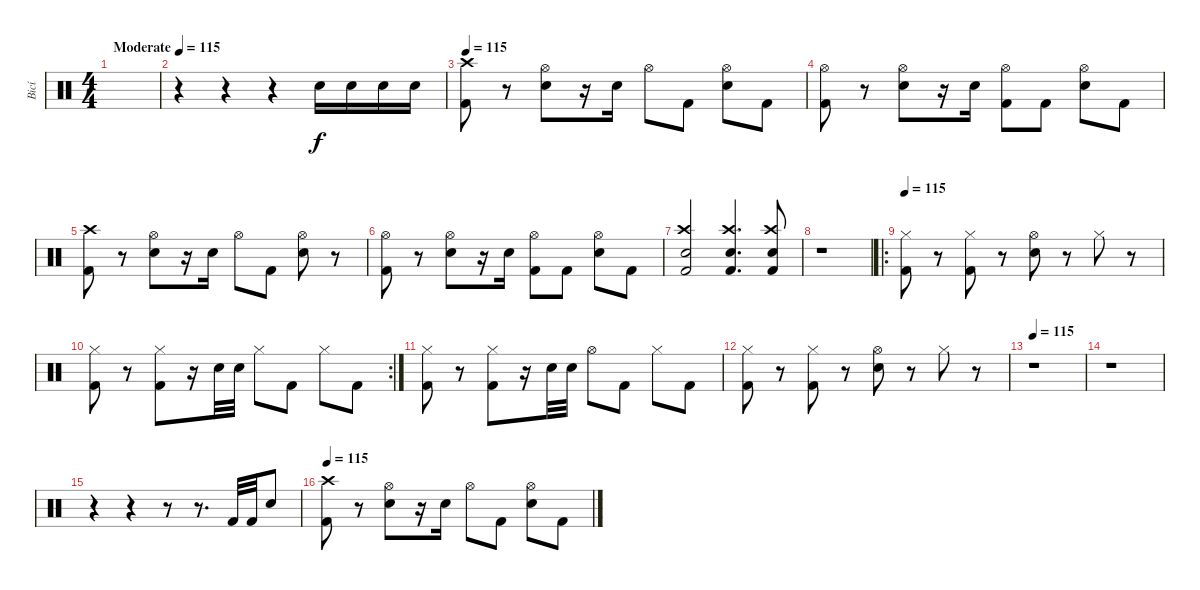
\track ("Bicí" "Bicí") {instrument percussion}
\staff {score}
\articulation defaults
\ts (4 4)
\tempo (115 "Moderate")
\clef neutral
\ks c
|
r.4 r.4 r.4 "Snare (hit) 2".16 "Snare (hit) 2".16 "Snare (hit) 2".16 "Snare (hit) 2".16 |
\tempo 115
("Crash high (hit)" "Kick (hit) 2").8 r.8 ("Hi-Hat (open)" "Snare (hit) 2").8 r.16 "Snare (hit) 2".16 "Hi-Hat (open)".8 "Kick (hit) 2".8 ("Hi-Hat (open)" "Snare (hit) 2").8 "Kick (hit) 2".8 |
("Hi-Hat (open)" "Kick (hit) 2").8 r.8 ("Hi-Hat (open)" "Snare (hit) 2").8 r.16 "Snare (hit) 2".16 ("Hi-Hat (open)" "Kick (hit) 2").8 "Kick (hit) 2".8 ("Hi-Hat (open)" "Snare (hit) 2").8 "Kick (hit) 2".8 |
("Crash high (hit)" "Kick (hit) 2").8 r.8 ("Hi-Hat (open)" "Snare (hit) 2").8 r.16 "Snare (hit) 2".16 "Hi-Hat (open)".8 "Kick (hit) 2".8 ("Hi-Hat (open)" "Snare (hit) 2").8 r.8 |
("Hi-Hat (open)" "Kick (hit) 2").8 r.8 ("Hi-Hat (open)" "Snare (hit) 2").8 r.16 "Snare (hit) 2".16 ("Hi-Hat (open)" "Kick (hit) 2").8 "Kick (hit) 2".8 ("Hi-Hat (open)" "Snare (hit) 2").8 "Kick (hit) 2".8 |
("Crash high (hit)" "Snare (hit) 2" "Kick (hit) 2").2 ("Crash high (hit)" "Snare (hit) 2" "Kick (hit) 2").4{d} ("Crash high (hit)" "Snare (hit) 2" "Kick (hit) 2").8 |
r.1 |
\ro
\tempo 115
("Hi-Hat (closed)" "Kick (hit) 2").8 r.8 ("Hi-Hat (closed)" "Kick (hit) 2").8 r.8 ("Hi-Hat (open)" "Snare (hit) 2").8 r.8 "Hi-Hat (closed)".8 r.8 |
\rc 2
("Hi-Hat (closed)" "Kick (hit) 2").8 r.8 ("Hi-Hat (closed)" "Kick (hit) 2").8 r.16 "Snare (hit) 2".32 "Snare (hit) 2".32 "Hi-Hat (closed)".8 "Kick (hit) 2".8 "Hi-Hat (closed)".8 "Kick (hit) 2".8 |
("Hi-Hat (closed)" "Kick (hit) 2").8 r.8 ("Hi-Hat (closed)" "Kick (hit) 2").8 r.16 "Snare (hit) 2".32 "Snare (hit) 2".32 "Hi-Hat (open)".8 "Kick (hit) 2".8 "Hi-Hat (closed)".8 "Kick (hit) 2".8 |
("Hi-Hat (closed)" "Kick (hit) 2").8 r.8 ("Hi-Hat (closed)" "Kick (hit) 2").8 r.8 ("Hi-Hat (open)" "Snare (hit) 2").8 r.8 "Hi-Hat (closed)".8 r.8 |
\tempo 115
r.1 |
r.1 |
r.4 r.4 r.8 r.8{d} "Kick (hit) 2".32 "Kick (hit) 2".32 "Snare (hit) 2".8 |
\tempo 115
("Crash high (hit)" "Kick (hit) 2").8 r.8 ("Hi-Hat (open)" "Snare (hit) 2").8 r.16 "Snare (hit) 2".16 "Hi-Hat (open)".8 "Kick (hit) 2".8 ("Hi-Hat (open)" "Snare (hit) 2").8 "Kick (hit) 2".8
